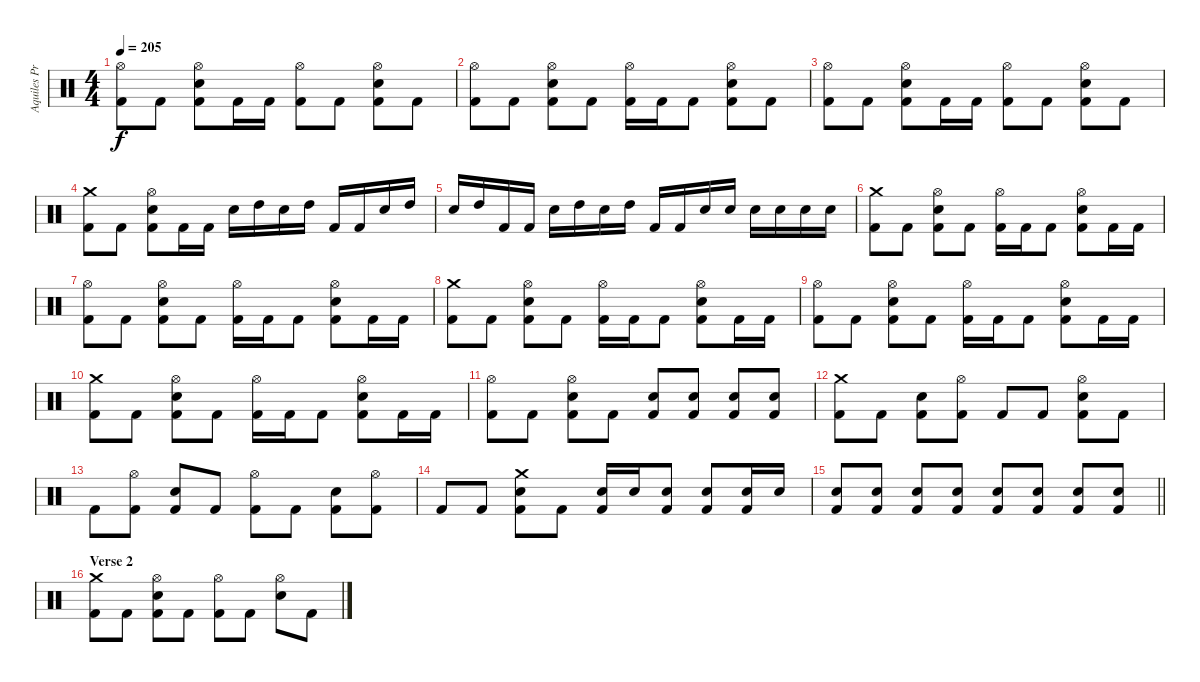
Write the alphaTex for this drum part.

\track ("Aquiles Priester" "Aquiles Pr") {instrument percussion}
\staff {score}
\articulation defaults
\ts (4 4)
\tempo 205
\clef neutral
\ks c
("Hi-Hat (open)" "Kick (hit) 2").8{dy f} "Kick (hit) 2".8 ("Hi-Hat (open)" "Electric Snare (hit)" "Kick (hit) 2").8 "Kick (hit) 2".16 "Kick (hit) 2".16 ("Hi-Hat (open)" "Kick (hit) 2").8 "Kick (hit) 2".8 ("Hi-Hat (open)" "Electric Snare (hit)" "Kick (hit) 2").8 "Kick (hit) 2".8 |
("Hi-Hat (open)" "Kick (hit) 2").8 "Kick (hit) 2".8 ("Hi-Hat (open)" "Electric Snare (hit)" "Kick (hit) 2").8 "Kick (hit) 2".8 ("Hi-Hat (open)" "Kick (hit) 2").16 "Kick (hit) 2".16 "Kick (hit) 2".8 ("Hi-Hat (open)" "Electric Snare (hit)" "Kick (hit) 2").8 "Kick (hit) 2".8 |
("Hi-Hat (open)" "Kick (hit) 2").8 "Kick (hit) 2".8 ("Hi-Hat (open)" "Electric Snare (hit)" "Kick (hit) 2").8 "Kick (hit) 2".16 "Kick (hit) 2".16 ("Hi-Hat (open)" "Kick (hit) 2").8 "Kick (hit) 2".8 ("Hi-Hat (open)" "Electric Snare (hit)" "Kick (hit) 2").8 "Kick (hit) 2".8 |
("Crash medium (hit)" "Kick (hit) 2").8 "Kick (hit) 2".8 ("Hi-Hat (open)" "Electric Snare (hit)" "Kick (hit) 2").8 "Kick (hit) 2".16 "Kick (hit) 2".16 "Electric Snare (hit)".16 "High Tom (hit)".16 "Electric Snare (hit)".16 "High Tom (hit)".16 "Kick (hit) 2".16 "Kick (hit) 2".16 "Electric Snare (hit)".16 "High Tom (hit)".16 |
"Electric Snare (hit)".16 "High Tom (hit)".16 "Kick (hit) 2".16 "Kick (hit) 2".16 "Electric Snare (hit)".16 "High Tom (hit)".16 "Electric Snare (hit)".16 "High Tom (hit)".16 "Kick (hit) 2".16 "Kick (hit) 2".16 "Electric Snare (hit)".16 "Electric Snare (hit)".16 "Electric Snare (hit)".16 "Electric Snare (hit)".16 "Electric Snare (hit)".16 "Electric Snare (hit)".16 |
("Crash medium (hit)" "Kick (hit) 2").8 "Kick (hit) 2".8 ("Hi-Hat (open)" "Electric Snare (hit)" "Kick (hit) 2").8 "Kick (hit) 2".8 ("Hi-Hat (open)" "Kick (hit) 2").16 "Kick (hit) 2".16 "Kick (hit) 2".8 ("Hi-Hat (open)" "Electric Snare (hit)" "Kick (hit) 2").8 "Kick (hit) 2".16 "Kick (hit) 2".16 |
("Hi-Hat (open)" "Kick (hit) 2").8 "Kick (hit) 2".8 ("Hi-Hat (open)" "Electric Snare (hit)" "Kick (hit) 2").8 "Kick (hit) 2".8 ("Hi-Hat (open)" "Kick (hit) 2").16 "Kick (hit) 2".16 "Kick (hit) 2".8 ("Hi-Hat (open)" "Electric Snare (hit)" "Kick (hit) 2").8 "Kick (hit) 2".16 "Kick (hit) 2".16 |
("Crash medium (hit)" "Kick (hit) 2").8 "Kick (hit) 2".8 ("Hi-Hat (open)" "Electric Snare (hit)" "Kick (hit) 2").8 "Kick (hit) 2".8 ("Hi-Hat (open)" "Kick (hit) 2").16 "Kick (hit) 2".16 "Kick (hit) 2".8 ("Hi-Hat (open)" "Electric Snare (hit)" "Kick (hit) 2").8 "Kick (hit) 2".16 "Kick (hit) 2".16 |
("Hi-Hat (open)" "Kick (hit) 2").8 "Kick (hit) 2".8 ("Hi-Hat (open)" "Electric Snare (hit)" "Kick (hit) 2").8 "Kick (hit) 2".8 ("Hi-Hat (open)" "Kick (hit) 2").16 "Kick (hit) 2".16 "Kick (hit) 2".8 ("Hi-Hat (open)" "Electric Snare (hit)" "Kick (hit) 2").8 "Kick (hit) 2".16 "Kick (hit) 2".16 |
("Crash medium (hit)" "Kick (hit) 2").8 "Kick (hit) 2".8 ("Hi-Hat (open)" "Electric Snare (hit)" "Kick (hit) 2").8 "Kick (hit) 2".8 ("Hi-Hat (open)" "Kick (hit) 2").16 "Kick (hit) 2".16 "Kick (hit) 2".8 ("Hi-Hat (open)" "Electric Snare (hit)" "Kick (hit) 2").8 "Kick (hit) 2".16 "Kick (hit) 2".16 |
("Hi-Hat (open)" "Kick (hit) 2").8 "Kick (hit) 2".8 ("Hi-Hat (open)" "Electric Snare (hit)" "Kick (hit) 2").8 "Kick (hit) 2".8 ("Electric Snare (hit)" "Kick (hit) 2").8 ("Electric Snare (hit)" "Kick (hit) 2").8 ("Electric Snare (hit)" "Kick (hit) 2").8 ("Electric Snare (hit)" "Kick (hit) 2").8 |
("Crash medium (hit)" "Kick (hit) 2").8 "Kick (hit) 2".8 ("Electric Snare (hit)" "Kick (hit) 2").8 ("Hi-Hat (open)" "Kick (hit) 2").8 "Kick (hit) 2".8 "Kick (hit) 2".8 ("Hi-Hat (open)" "Electric Snare (hit)" "Kick (hit) 2").8 "Kick (hit) 2".8 |
"Kick (hit) 2".8 ("Hi-Hat (open)" "Kick (hit) 2").8 ("Electric Snare (hit)" "Kick (hit) 2").8 "Kick (hit) 2".8 ("Hi-Hat (open)" "Kick (hit) 2").8 "Kick (hit) 2".8 ("Electric Snare (hit)" "Kick (hit) 2").8 ("Hi-Hat (open)" "Kick (hit) 2").8 |
"Kick (hit) 2".8 "Kick (hit) 2".8 ("Crash medium (hit)" "Electric Snare (hit)" "Kick (hit) 2").8 "Kick (hit) 2".8 ("Electric Snare (hit)" "Kick (hit) 2").16 "Electric Snare (hit)".16 ("Electric Snare (hit)" "Kick (hit) 2").8 ("Electric Snare (hit)" "Kick (hit) 2").8 ("Electric Snare (hit)" "Kick (hit) 2").16 "Electric Snare (hit)".16 |
\barLineRight lightlight
("Electric Snare (hit)" "Kick (hit) 2").8 ("Electric Snare (hit)" "Kick (hit) 2").8 ("Electric Snare (hit)" "Kick (hit) 2").8 ("Electric Snare (hit)" "Kick (hit) 2").8 ("Electric Snare (hit)" "Kick (hit) 2").8 ("Electric Snare (hit)" "Kick (hit) 2").8 ("Electric Snare (hit)" "Kick (hit) 2").8 ("Electric Snare (hit)" "Kick (hit) 2").8 |
\section ("" "Verse 2")
("Crash medium (hit)" "Kick (hit) 2").8 "Kick (hit) 2".8 ("Hi-Hat (open)" "Electric Snare (hit)" "Kick (hit) 2").8 "Kick (hit) 2".8 ("Hi-Hat (open)" "Kick (hit) 2").8 "Kick (hit) 2".8 ("Hi-Hat (open)" "Electric Snare (hit)").8 "Kick (hit) 2".8
